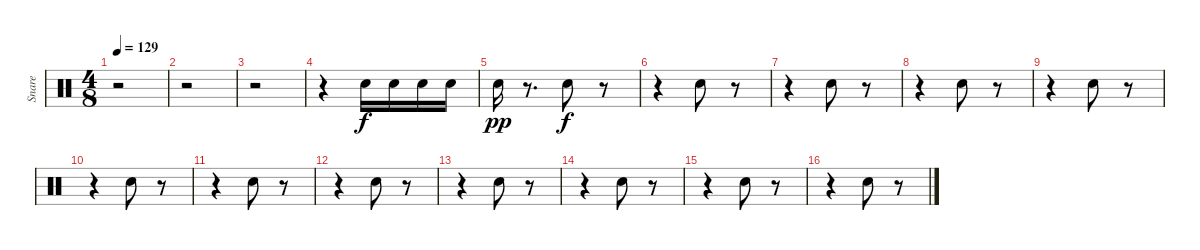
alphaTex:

\track ("Snare" "Snare") {instrument percussion}
\staff {score}
\articulation defaults
\ts (4 8)
\tempo 129
\clef neutral
\ks c
r.2{dy f} |
r.2 |
r.2 |
r.4 "Snare (hit) 2".16 "Snare (hit) 2".16 "Snare (hit) 2".16 "Snare (hit) 2".16 |
"Snare (hit) 2".16{dy pp} r.8{d} "Snare (hit) 2".8{dy f} r.8 |
r.4 "Snare (hit) 2".8 r.8 |
r.4 "Snare (hit) 2".8 r.8 |
r.4 "Snare (hit) 2".8 r.8 |
r.4 "Snare (hit) 2".8 r.8 |
r.4 "Snare (hit) 2".8 r.8 |
r.4 "Snare (hit) 2".8 r.8 |
r.4 "Snare (hit) 2".8 r.8 |
r.4 "Snare (hit) 2".8 r.8 |
r.4 "Snare (hit) 2".8 r.8 |
r.4 "Snare (hit) 2".8 r.8 |
r.4 "Snare (hit) 2".8 r.8
